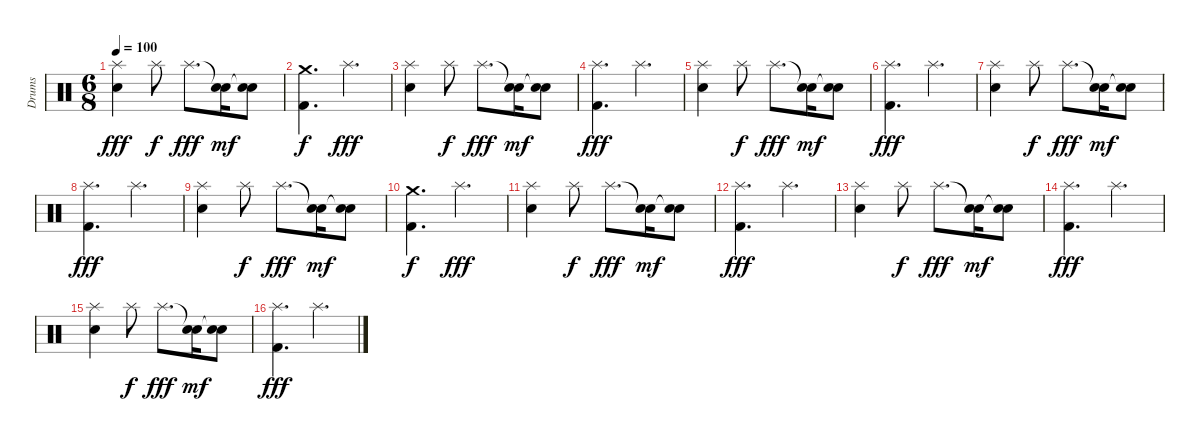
\track ("Drums" "Drums") {instrument percussion}
\staff {score}
\articulation defaults
\ts (6 8)
\tempo 100
\clef neutral
\ks c
("Splash (hit)" "Snare (hit) 2").4{dy fff} "Splash (hit)".8{dy f} "Splash (hit)".8{d dy fff} ("Snare (hit)"{t} "Snare (hit) 2").16{dy mf} ("Snare (hit)"{t} "Snare (hit) 2").8 |
("Crash medium (hit)" "Kick (hit) 2").4{d dy f} "Splash (hit)".4{d dy fff} |
("Splash (hit)" "Snare (hit) 2").4 "Splash (hit)".8{dy f} "Splash (hit)".8{d dy fff} ("Snare (hit)"{t} "Snare (hit) 2").16{dy mf} ("Snare (hit)"{t} "Snare (hit) 2").8 |
("Splash (hit)" "Kick (hit) 2").4{d dy fff} "Splash (hit)".4{d} |
("Splash (hit)" "Snare (hit) 2").4 "Splash (hit)".8{dy f} "Splash (hit)".8{d dy fff} ("Snare (hit)"{t} "Snare (hit) 2").16{dy mf} ("Snare (hit)"{t} "Snare (hit) 2").8 |
("Splash (hit)" "Kick (hit) 2").4{d dy fff} "Splash (hit)".4{d} |
("Splash (hit)" "Snare (hit) 2").4 "Splash (hit)".8{dy f} "Splash (hit)".8{d dy fff} ("Snare (hit)"{t} "Snare (hit) 2").16{dy mf} ("Snare (hit)"{t} "Snare (hit) 2").8 |
("Splash (hit)" "Kick (hit) 2").4{d dy fff} "Splash (hit)".4{d} |
("Splash (hit)" "Snare (hit) 2").4 "Splash (hit)".8{dy f} "Splash (hit)".8{d dy fff} ("Snare (hit)"{t} "Snare (hit) 2").16{dy mf} ("Snare (hit)"{t} "Snare (hit) 2").8 |
("Crash medium (hit)" "Kick (hit) 2").4{d dy f} "Splash (hit)".4{d dy fff} |
("Splash (hit)" "Snare (hit) 2").4 "Splash (hit)".8{dy f} "Splash (hit)".8{d dy fff} ("Snare (hit)"{t} "Snare (hit) 2").16{dy mf} ("Snare (hit)"{t} "Snare (hit) 2").8 |
("Splash (hit)" "Kick (hit) 2").4{d dy fff} "Splash (hit)".4{d} |
("Splash (hit)" "Snare (hit) 2").4 "Splash (hit)".8{dy f} "Splash (hit)".8{d dy fff} ("Snare (hit)"{t} "Snare (hit) 2").16{dy mf} ("Snare (hit)"{t} "Snare (hit) 2").8 |
("Splash (hit)" "Kick (hit) 2").4{d dy fff} "Splash (hit)".4{d} |
("Splash (hit)" "Snare (hit) 2").4 "Splash (hit)".8{dy f} "Splash (hit)".8{d dy fff} ("Snare (hit)"{t} "Snare (hit) 2").16{dy mf} ("Snare (hit)"{t} "Snare (hit) 2").8 |
("Splash (hit)" "Kick (hit) 2").4{d dy fff} "Splash (hit)".4{d}
